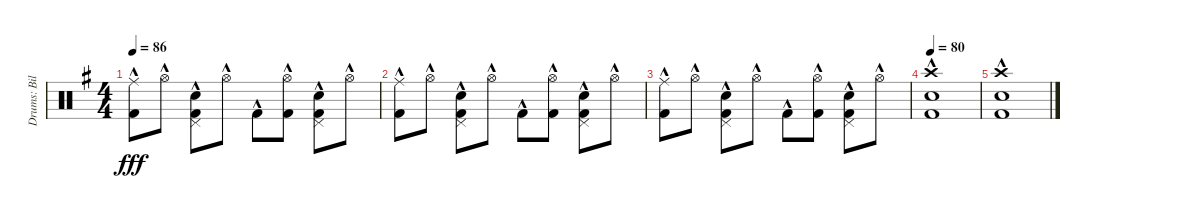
\track ("Drums: Bill" "Drums: Bil") {instrument percussion}
\staff {score}
\articulation defaults
\ts (4 4)
\tempo 86
\clef neutral
\ks g
("Ride (middle)"{hac} "Kick (hit) 2"{hac}).8{dy fff} "Hi-Hat (open)"{hac}.8 ("Pedal Hi-Hat (hit)"{hac} "Snare (hit) 2"{hac} "Kick (hit) 2"{hac}).8 "Hi-Hat (open)"{hac}.8 "Kick (hit) 2"{hac}.8 ("Hi-Hat (open)"{hac} "Kick (hit) 2"{hac}).8 ("Pedal Hi-Hat (hit)"{hac} "Snare (hit) 2"{hac} "Kick (hit) 2"{hac}).8 "Hi-Hat (open)"{hac}.8 |
("Ride (middle)"{hac} "Kick (hit) 2"{hac}).8 "Hi-Hat (open)"{hac}.8 ("Pedal Hi-Hat (hit)"{hac} "Snare (hit) 2"{hac} "Kick (hit) 2"{hac}).8 "Hi-Hat (open)"{hac}.8 "Kick (hit) 2"{hac}.8 ("Hi-Hat (open)"{hac} "Kick (hit) 2"{hac}).8 ("Pedal Hi-Hat (hit)"{hac} "Snare (hit) 2"{hac} "Kick (hit) 2"{hac}).8 "Hi-Hat (open)"{hac}.8 |
("Ride (middle)"{hac} "Kick (hit) 2"{hac}).8 "Hi-Hat (open)"{hac}.8 ("Pedal Hi-Hat (hit)"{hac} "Snare (hit) 2"{hac} "Kick (hit) 2"{hac}).8 "Hi-Hat (open)"{hac}.8 "Kick (hit) 2"{hac}.8 ("Hi-Hat (open)"{hac} "Kick (hit) 2"{hac}).8 ("Pedal Hi-Hat (hit)"{hac} "Snare (hit) 2"{hac} "Kick (hit) 2"{hac}).8 "Hi-Hat (open)"{hac}.8 |
\tempo 80
("Crash high (hit)"{hac} "Snare (hit) 2"{hac} "Kick (hit) 2"{hac}).1 |
("Crash high (hit)"{hac} "Snare (hit) 2"{hac} "Kick (hit) 2"{hac}).1
